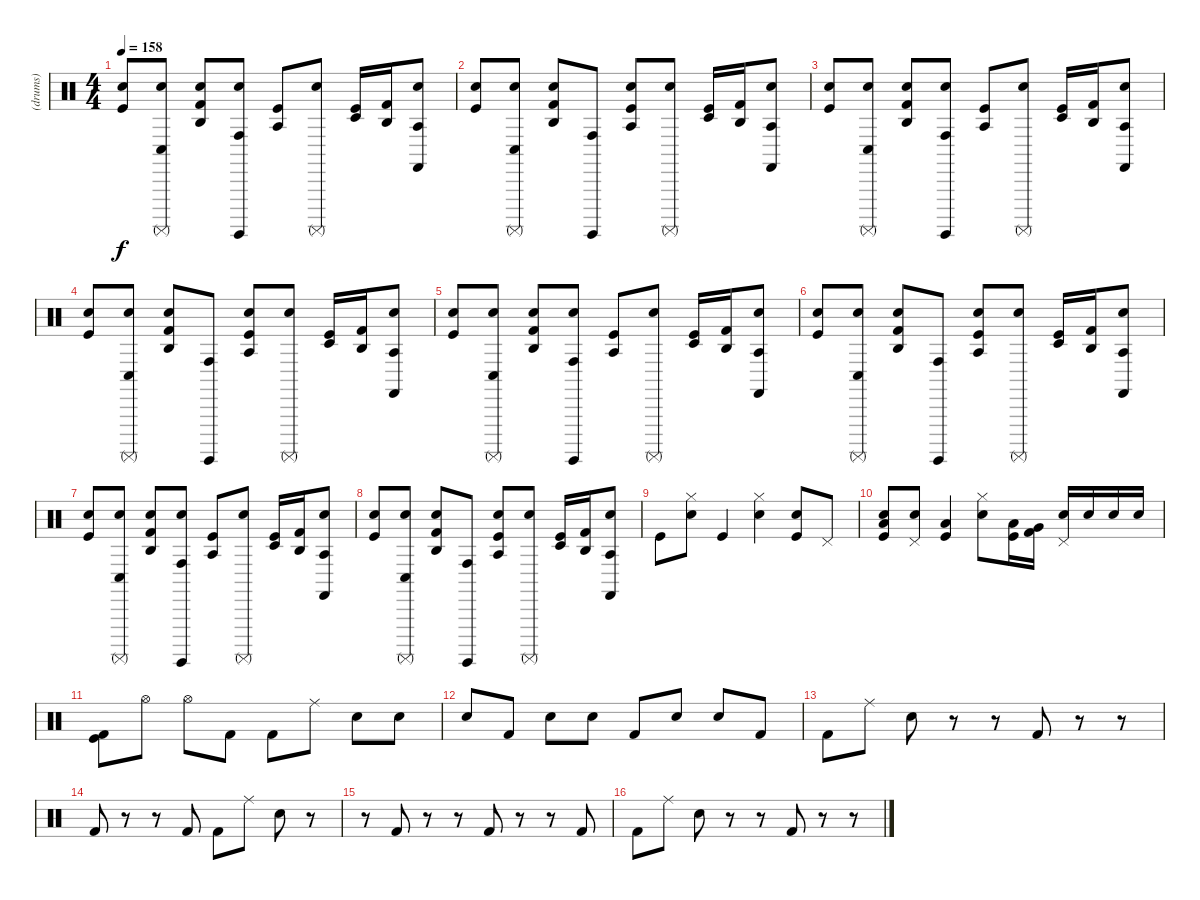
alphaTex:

\track ("(drums)" "(drums)") {instrument percussion}
\staff {score}
\articulation defaults
\ts (4 4)
\tempo 158
\clef neutral
\ks c
("Electric Snare (hit)" "Kick (hit)").8{dy f} ("Electric Snare (hit)" "Conga low (hit)" "Surdo (mute)").8 ("Electric Snare (hit)" "Agogo high (hit)" "Kick (hit) 2").8 ("Electric Snare (hit)" "Conga high (hit)" "Surdo (hit)").8 ("Agogo tow (hit)" "Kick (hit)").8 ("Electric Snare (hit)" "Surdo (mute)").8 ("Timbale low (hit)" "Kick (hit)").16 ("Agogo high (hit)" "Kick (hit) 2").16 ("Electric Snare (hit)" "Agogo tow (hit)" "Castanets (hit)").8 |
("Electric Snare (hit)" "Kick (hit)").8 ("Electric Snare (hit)" "Conga low (hit)" "Surdo (mute)").8 ("Electric Snare (hit)" "Agogo high (hit)" "Kick (hit) 2").8 ("Conga high (hit)" "Surdo (hit)").8 ("Electric Snare (hit)" "Agogo tow (hit)" "Kick (hit)").8 ("Electric Snare (hit)" "Surdo (mute)").8 ("Timbale low (hit)" "Kick (hit)").16 ("Agogo high (hit)" "Kick (hit) 2").16 ("Electric Snare (hit)" "Agogo tow (hit)" "Castanets (hit)").8 |
("Electric Snare (hit)" "Kick (hit)").8 ("Electric Snare (hit)" "Conga low (hit)" "Surdo (mute)").8 ("Electric Snare (hit)" "Agogo high (hit)" "Kick (hit) 2").8 ("Electric Snare (hit)" "Conga high (hit)" "Surdo (hit)").8 ("Agogo tow (hit)" "Kick (hit)").8 ("Electric Snare (hit)" "Surdo (mute)").8 ("Timbale low (hit)" "Kick (hit)").16 ("Agogo high (hit)" "Kick (hit) 2").16 ("Electric Snare (hit)" "Agogo tow (hit)" "Castanets (hit)").8 |
("Electric Snare (hit)" "Kick (hit)").8 ("Electric Snare (hit)" "Conga low (hit)" "Surdo (mute)").8 ("Electric Snare (hit)" "Agogo high (hit)" "Kick (hit) 2").8 ("Conga high (hit)" "Surdo (hit)").8 ("Electric Snare (hit)" "Agogo tow (hit)" "Kick (hit)").8 ("Electric Snare (hit)" "Surdo (mute)").8 ("Timbale low (hit)" "Kick (hit)").16 ("Agogo high (hit)" "Kick (hit) 2").16 ("Electric Snare (hit)" "Agogo tow (hit)" "Castanets (hit)").8 |
("Electric Snare (hit)" "Kick (hit)").8 ("Electric Snare (hit)" "Conga low (hit)" "Surdo (mute)").8 ("Electric Snare (hit)" "Agogo high (hit)" "Kick (hit) 2").8 ("Electric Snare (hit)" "Conga high (hit)" "Surdo (hit)").8 ("Agogo tow (hit)" "Kick (hit)").8 ("Electric Snare (hit)" "Surdo (mute)").8 ("Timbale low (hit)" "Kick (hit)").16 ("Agogo high (hit)" "Kick (hit) 2").16 ("Electric Snare (hit)" "Agogo tow (hit)" "Castanets (hit)").8 |
("Electric Snare (hit)" "Kick (hit)").8 ("Electric Snare (hit)" "Conga low (hit)" "Surdo (mute)").8 ("Electric Snare (hit)" "Agogo high (hit)" "Kick (hit) 2").8 ("Conga high (hit)" "Surdo (hit)").8 ("Electric Snare (hit)" "Agogo tow (hit)" "Kick (hit)").8 ("Electric Snare (hit)" "Surdo (mute)").8 ("Timbale low (hit)" "Kick (hit)").16 ("Agogo high (hit)" "Kick (hit) 2").16 ("Electric Snare (hit)" "Agogo tow (hit)" "Castanets (hit)").8 |
("Electric Snare (hit)" "Kick (hit)").8 ("Electric Snare (hit)" "Conga low (hit)" "Surdo (mute)").8 ("Electric Snare (hit)" "Agogo high (hit)" "Kick (hit) 2").8 ("Electric Snare (hit)" "Conga high (hit)" "Surdo (hit)").8 ("Agogo tow (hit)" "Kick (hit)").8 ("Electric Snare (hit)" "Surdo (mute)").8 ("Timbale low (hit)" "Kick (hit)").16 ("Agogo high (hit)" "Kick (hit) 2").16 ("Electric Snare (hit)" "Agogo tow (hit)" "Castanets (hit)").8 |
("Electric Snare (hit)" "Kick (hit)").8 ("Electric Snare (hit)" "Conga low (hit)" "Surdo (mute)").8 ("Electric Snare (hit)" "Agogo high (hit)" "Kick (hit) 2").8 ("Conga high (hit)" "Surdo (hit)").8 ("Electric Snare (hit)" "Agogo tow (hit)" "Kick (hit)").8 ("Electric Snare (hit)" "Surdo (mute)").8 ("Timbale low (hit)" "Kick (hit)").16 ("Agogo high (hit)" "Kick (hit) 2").16 ("Electric Snare (hit)" "Agogo tow (hit)" "Castanets (hit)").8 |
"Kick (hit)".8 ("Electric Snare (hit)" "Hi-Hat (closed)").8 "Kick (hit)".4 ("Electric Snare (hit)" "Hi-Hat (closed)").4 ("Electric Snare (hit)" "Kick (hit)").8 "Pedal Hi-Hat (hit)".8 |
("Electric Snare (hit)" "Low Tom (hit)" "Kick (hit)").8 ("Electric Snare (hit)" "Pedal Hi-Hat (hit)").8 ("Low Tom (hit)" "Kick (hit)").4 ("Hi-Hat (closed)" "Electric Snare (hit)").8 ("Low Tom (hit)" "Kick (hit)").16 ("Very Low Tom (hit)" "Kick (hit) 2").16 ("Pedal Hi-Hat (hit)" "Electric Snare (hit)").16 "Electric Snare (hit)".16 "Electric Snare (hit)".16 "Electric Snare (hit)".16 |
("Kick (hit) 2" "Kick (hit)").8 "Hi-Hat (open)".8 "Hi-Hat (open)".8 "Kick (hit) 2".8 "Kick (hit) 2".8 "Ride (middle)".8 "Snare (hit) 2".8 "Electric Snare (hit)".8 |
"Electric Snare (hit)".8 "Kick (hit) 2".8 "Electric Snare (hit)".8 "Electric Snare (hit)".8 "Kick (hit) 2".8 "Electric Snare (hit)".8 "Electric Snare (hit)".8 "Kick (hit) 2".8 |
"Kick (hit) 2".8 "Ride (middle)".8 "Snare (hit) 2".8 r.8 r.8 "Kick (hit) 2".8 r.8 r.8 |
"Kick (hit) 2".8 r.8 r.8 "Kick (hit) 2".8 "Kick (hit) 2".8 "Ride (middle)".8 "Snare (hit) 2".8 r.8 |
r.8 "Kick (hit) 2".8 r.8 r.8 "Kick (hit) 2".8 r.8 r.8 "Kick (hit) 2".8 |
"Kick (hit) 2".8 "Ride (middle)".8 "Snare (hit) 2".8 r.8 r.8 "Kick (hit) 2".8 r.8 r.8
